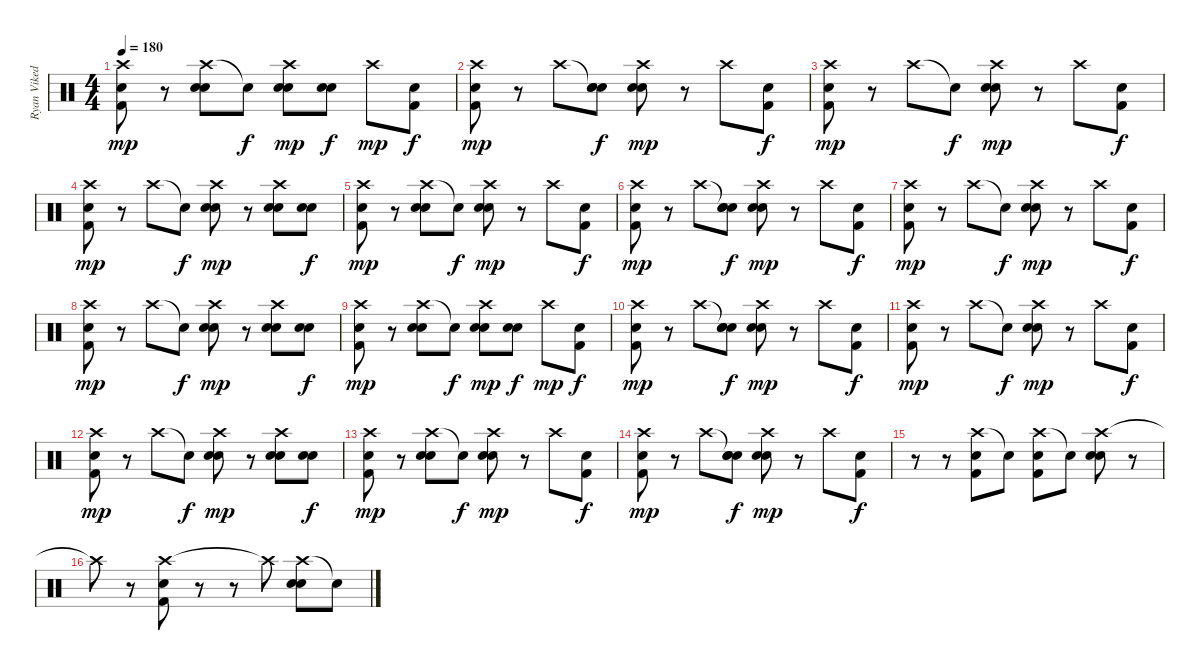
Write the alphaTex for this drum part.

\track ("Ryan Vikedal(drums)" "Ryan Viked") {instrument percussion}
\staff {score}
\articulation defaults
\ts (4 4)
\tempo 180
\clef neutral
\ks c
("Crash high (hit)" "Electric Snare (hit)" "Kick (hit) 2").8{dy mp} r.8 ("Crash high (hit)" "Electric Snare (hit)" "Electric Snare (hit)").8 "Snare (hit)"{t}.8{dy f} ("Crash high (hit)" "Electric Snare (hit)" "Electric Snare (hit)").8{dy mp} ("Electric Snare (hit)" "Electric Snare (hit)").8{dy f} "Crash high (hit)".8{dy mp} ("Kick (hit) 2" "Electric Snare (hit)").8{dy f} |
("Crash high (hit)" "Electric Snare (hit)" "Kick (hit) 2").8{dy mp} r.8 "Crash high (hit)".8 ("Snare (hit)"{t} "Electric Snare (hit)" "Electric Snare (hit)").8{dy f} ("Crash high (hit)" "Electric Snare (hit)" "Electric Snare (hit)").8{dy mp} r.8 "Crash high (hit)".8 ("Kick (hit) 2" "Electric Snare (hit)").8{dy f} |
("Crash high (hit)" "Electric Snare (hit)" "Kick (hit) 2").8{dy mp} r.8 "Crash high (hit)".8 "Snare (hit)"{t}.8{dy f} ("Crash high (hit)" "Electric Snare (hit)" "Electric Snare (hit)").8{dy mp} r.8 "Crash high (hit)".8 ("Kick (hit) 2" "Electric Snare (hit)").8{dy f} |
("Crash high (hit)" "Electric Snare (hit)" "Kick (hit) 2").8{dy mp} r.8 "Crash high (hit)".8 "Snare (hit)"{t}.8{dy f} ("Crash high (hit)" "Electric Snare (hit)" "Electric Snare (hit)").8{dy mp} r.8 ("Crash high (hit)" "Electric Snare (hit)" "Electric Snare (hit)").8 ("Electric Snare (hit)" "Electric Snare (hit)").8{dy f} |
("Crash high (hit)" "Electric Snare (hit)" "Kick (hit) 2").8{dy mp} r.8 ("Crash high (hit)" "Electric Snare (hit)" "Electric Snare (hit)").8 "Snare (hit)"{t}.8{dy f} ("Crash high (hit)" "Electric Snare (hit)" "Electric Snare (hit)").8{dy mp} r.8 "Crash high (hit)".8 ("Kick (hit) 2" "Electric Snare (hit)").8{dy f} |
("Crash high (hit)" "Electric Snare (hit)" "Kick (hit) 2").8{dy mp} r.8 "Crash high (hit)".8 ("Snare (hit)"{t} "Electric Snare (hit)" "Electric Snare (hit)").8{dy f} ("Crash high (hit)" "Electric Snare (hit)" "Electric Snare (hit)").8{dy mp} r.8 "Crash high (hit)".8 ("Kick (hit) 2" "Electric Snare (hit)").8{dy f} |
("Crash high (hit)" "Electric Snare (hit)" "Kick (hit) 2").8{dy mp} r.8 "Crash high (hit)".8 "Snare (hit)"{t}.8{dy f} ("Crash high (hit)" "Electric Snare (hit)" "Electric Snare (hit)").8{dy mp} r.8 "Crash high (hit)".8 ("Kick (hit) 2" "Electric Snare (hit)").8{dy f} |
("Crash high (hit)" "Electric Snare (hit)" "Kick (hit) 2").8{dy mp} r.8 "Crash high (hit)".8 "Snare (hit)"{t}.8{dy f} ("Crash high (hit)" "Electric Snare (hit)" "Electric Snare (hit)").8{dy mp} r.8 ("Crash high (hit)" "Electric Snare (hit)" "Electric Snare (hit)").8 ("Electric Snare (hit)" "Electric Snare (hit)").8{dy f} |
("Crash high (hit)" "Electric Snare (hit)" "Kick (hit) 2").8{dy mp} r.8 ("Crash high (hit)" "Electric Snare (hit)" "Electric Snare (hit)").8 "Snare (hit)"{t}.8{dy f} ("Crash high (hit)" "Electric Snare (hit)" "Electric Snare (hit)").8{dy mp} ("Electric Snare (hit)" "Electric Snare (hit)").8{dy f} "Crash high (hit)".8{dy mp} ("Kick (hit) 2" "Electric Snare (hit)").8{dy f} |
("Crash high (hit)" "Electric Snare (hit)" "Kick (hit) 2").8{dy mp} r.8 "Crash high (hit)".8 ("Snare (hit)"{t} "Electric Snare (hit)" "Electric Snare (hit)").8{dy f} ("Crash high (hit)" "Electric Snare (hit)" "Electric Snare (hit)").8{dy mp} r.8 "Crash high (hit)".8 ("Kick (hit) 2" "Electric Snare (hit)").8{dy f} |
("Crash high (hit)" "Electric Snare (hit)" "Kick (hit) 2").8{dy mp} r.8 "Crash high (hit)".8 "Snare (hit)"{t}.8{dy f} ("Crash high (hit)" "Electric Snare (hit)" "Electric Snare (hit)").8{dy mp} r.8 "Crash high (hit)".8 ("Kick (hit) 2" "Electric Snare (hit)").8{dy f} |
("Crash high (hit)" "Electric Snare (hit)" "Kick (hit) 2").8{dy mp} r.8 "Crash high (hit)".8 "Snare (hit)"{t}.8{dy f} ("Crash high (hit)" "Electric Snare (hit)" "Electric Snare (hit)").8{dy mp} r.8 ("Crash high (hit)" "Electric Snare (hit)" "Electric Snare (hit)").8 ("Electric Snare (hit)" "Electric Snare (hit)").8{dy f} |
("Crash high (hit)" "Electric Snare (hit)" "Kick (hit) 2").8{dy mp} r.8 ("Crash high (hit)" "Electric Snare (hit)" "Electric Snare (hit)").8 "Snare (hit)"{t}.8{dy f} ("Crash high (hit)" "Electric Snare (hit)" "Electric Snare (hit)").8{dy mp} r.8 "Crash high (hit)".8 ("Kick (hit) 2" "Electric Snare (hit)").8{dy f} |
("Crash high (hit)" "Electric Snare (hit)" "Kick (hit) 2").8{dy mp} r.8 "Crash high (hit)".8 ("Snare (hit)"{t} "Electric Snare (hit)" "Electric Snare (hit)").8{dy f} ("Crash high (hit)" "Electric Snare (hit)" "Electric Snare (hit)").8{dy mp} r.8 "Crash high (hit)".8 ("Kick (hit) 2" "Electric Snare (hit)").8{dy f} |
r.8 r.8 ("Crash high (hit)" "Electric Snare (hit)" "Kick (hit) 2").8 "Snare (hit)"{t}.8 ("Crash high (hit)" "Electric Snare (hit)" "Kick (hit) 2").8 "Snare (hit)"{t}.8 ("Crash high (hit)" "Electric Snare (hit)" "Electric Snare (hit)").8 r.8 |
"Crash high (hit)"{t}.8 r.8 ("Crash high (hit)" "Electric Snare (hit)" "Kick (hit) 2").8 r.8 r.8 "Crash high (hit)"{t}.8 ("Crash high (hit)" "Electric Snare (hit)" "Electric Snare (hit)").8 "Snare (hit)"{t}.8
